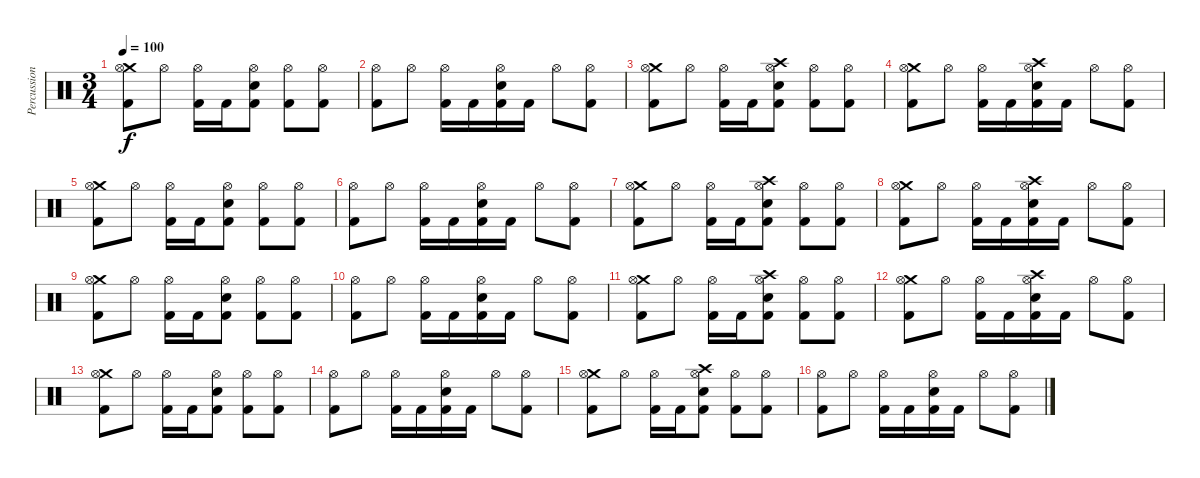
\track ("Percussion" "Percussion") {instrument percussion}
\staff {score}
\articulation defaults
\ts (3 4)
\tempo 100
\clef neutral
\ks c
("Crash medium (hit)" "Hi-Hat (open)" "Kick (hit) 2").8{dy f} "Hi-Hat (open)".8 ("Hi-Hat (open)" "Kick (hit) 2").16 "Kick (hit) 2".16 ("Hi-Hat (open)" "Electric Snare (hit)" "Kick (hit) 2").8 ("Hi-Hat (open)" "Kick (hit) 2").8 ("Hi-Hat (open)" "Kick (hit) 2").8 |
("Hi-Hat (open)" "Kick (hit) 2").8 "Hi-Hat (open)".8 ("Hi-Hat (open)" "Kick (hit) 2").16 "Kick (hit) 2".16 ("Hi-Hat (open)" "Electric Snare (hit)" "Kick (hit) 2").16 "Kick (hit) 2".16 "Hi-Hat (open)".8 ("Hi-Hat (open)" "Kick (hit) 2").8 |
("Crash medium (hit)" "Hi-Hat (open)" "Kick (hit) 2").8 "Hi-Hat (open)".8 ("Hi-Hat (open)" "Kick (hit) 2").16 "Kick (hit) 2".16 ("Crash high (hit)" "Hi-Hat (open)" "Electric Snare (hit)" "Kick (hit) 2").8 ("Hi-Hat (open)" "Kick (hit) 2").8 ("Hi-Hat (open)" "Kick (hit) 2").8 |
("Crash medium (hit)" "Hi-Hat (open)" "Kick (hit) 2").8 "Hi-Hat (open)".8 ("Hi-Hat (open)" "Kick (hit) 2").16 "Kick (hit) 2".16 ("Crash high (hit)" "Hi-Hat (open)" "Electric Snare (hit)" "Kick (hit) 2").16 "Kick (hit) 2".16 "Hi-Hat (open)".8 ("Hi-Hat (open)" "Kick (hit) 2").8 |
("Crash medium (hit)" "Hi-Hat (open)" "Kick (hit) 2").8 "Hi-Hat (open)".8 ("Hi-Hat (open)" "Kick (hit) 2").16 "Kick (hit) 2".16 ("Hi-Hat (open)" "Electric Snare (hit)" "Kick (hit) 2").8 ("Hi-Hat (open)" "Kick (hit) 2").8 ("Hi-Hat (open)" "Kick (hit) 2").8 |
("Hi-Hat (open)" "Kick (hit) 2").8 "Hi-Hat (open)".8 ("Hi-Hat (open)" "Kick (hit) 2").16 "Kick (hit) 2".16 ("Hi-Hat (open)" "Electric Snare (hit)" "Kick (hit) 2").16 "Kick (hit) 2".16 "Hi-Hat (open)".8 ("Hi-Hat (open)" "Kick (hit) 2").8 |
("Crash medium (hit)" "Hi-Hat (open)" "Kick (hit) 2").8 "Hi-Hat (open)".8 ("Hi-Hat (open)" "Kick (hit) 2").16 "Kick (hit) 2".16 ("Crash high (hit)" "Hi-Hat (open)" "Electric Snare (hit)" "Kick (hit) 2").8 ("Hi-Hat (open)" "Kick (hit) 2").8 ("Hi-Hat (open)" "Kick (hit) 2").8 |
("Crash medium (hit)" "Hi-Hat (open)" "Kick (hit) 2").8 "Hi-Hat (open)".8 ("Hi-Hat (open)" "Kick (hit) 2").16 "Kick (hit) 2".16 ("Crash high (hit)" "Hi-Hat (open)" "Electric Snare (hit)" "Kick (hit) 2").16 "Kick (hit) 2".16 "Hi-Hat (open)".8 ("Hi-Hat (open)" "Kick (hit) 2").8 |
("Crash medium (hit)" "Hi-Hat (open)" "Kick (hit) 2").8 "Hi-Hat (open)".8 ("Hi-Hat (open)" "Kick (hit) 2").16 "Kick (hit) 2".16 ("Hi-Hat (open)" "Electric Snare (hit)" "Kick (hit) 2").8 ("Hi-Hat (open)" "Kick (hit) 2").8 ("Hi-Hat (open)" "Kick (hit) 2").8 |
("Hi-Hat (open)" "Kick (hit) 2").8 "Hi-Hat (open)".8 ("Hi-Hat (open)" "Kick (hit) 2").16 "Kick (hit) 2".16 ("Hi-Hat (open)" "Electric Snare (hit)" "Kick (hit) 2").16 "Kick (hit) 2".16 "Hi-Hat (open)".8 ("Hi-Hat (open)" "Kick (hit) 2").8 |
("Crash medium (hit)" "Hi-Hat (open)" "Kick (hit) 2").8 "Hi-Hat (open)".8 ("Hi-Hat (open)" "Kick (hit) 2").16 "Kick (hit) 2".16 ("Crash high (hit)" "Hi-Hat (open)" "Electric Snare (hit)" "Kick (hit) 2").8 ("Hi-Hat (open)" "Kick (hit) 2").8 ("Hi-Hat (open)" "Kick (hit) 2").8 |
("Crash medium (hit)" "Hi-Hat (open)" "Kick (hit) 2").8 "Hi-Hat (open)".8 ("Hi-Hat (open)" "Kick (hit) 2").16 "Kick (hit) 2".16 ("Crash high (hit)" "Hi-Hat (open)" "Electric Snare (hit)" "Kick (hit) 2").16 "Kick (hit) 2".16 "Hi-Hat (open)".8 ("Hi-Hat (open)" "Kick (hit) 2").8 |
("Crash medium (hit)" "Hi-Hat (open)" "Kick (hit) 2").8 "Hi-Hat (open)".8 ("Hi-Hat (open)" "Kick (hit) 2").16 "Kick (hit) 2".16 ("Hi-Hat (open)" "Electric Snare (hit)" "Kick (hit) 2").8 ("Hi-Hat (open)" "Kick (hit) 2").8 ("Hi-Hat (open)" "Kick (hit) 2").8 |
("Hi-Hat (open)" "Kick (hit) 2").8 "Hi-Hat (open)".8 ("Hi-Hat (open)" "Kick (hit) 2").16 "Kick (hit) 2".16 ("Hi-Hat (open)" "Electric Snare (hit)" "Kick (hit) 2").16 "Kick (hit) 2".16 "Hi-Hat (open)".8 ("Hi-Hat (open)" "Kick (hit) 2").8 |
("Crash medium (hit)" "Hi-Hat (open)" "Kick (hit) 2").8 "Hi-Hat (open)".8 ("Hi-Hat (open)" "Kick (hit) 2").16 "Kick (hit) 2".16 ("Crash high (hit)" "Hi-Hat (open)" "Electric Snare (hit)" "Kick (hit) 2").8 ("Hi-Hat (open)" "Kick (hit) 2").8 ("Hi-Hat (open)" "Kick (hit) 2").8 |
("Hi-Hat (open)" "Kick (hit) 2").8 "Hi-Hat (open)".8 ("Hi-Hat (open)" "Kick (hit) 2").16 "Kick (hit) 2".16 ("Hi-Hat (open)" "Electric Snare (hit)" "Kick (hit) 2").16 "Kick (hit) 2".16 "Hi-Hat (open)".8 ("Hi-Hat (open)" "Kick (hit) 2").8
